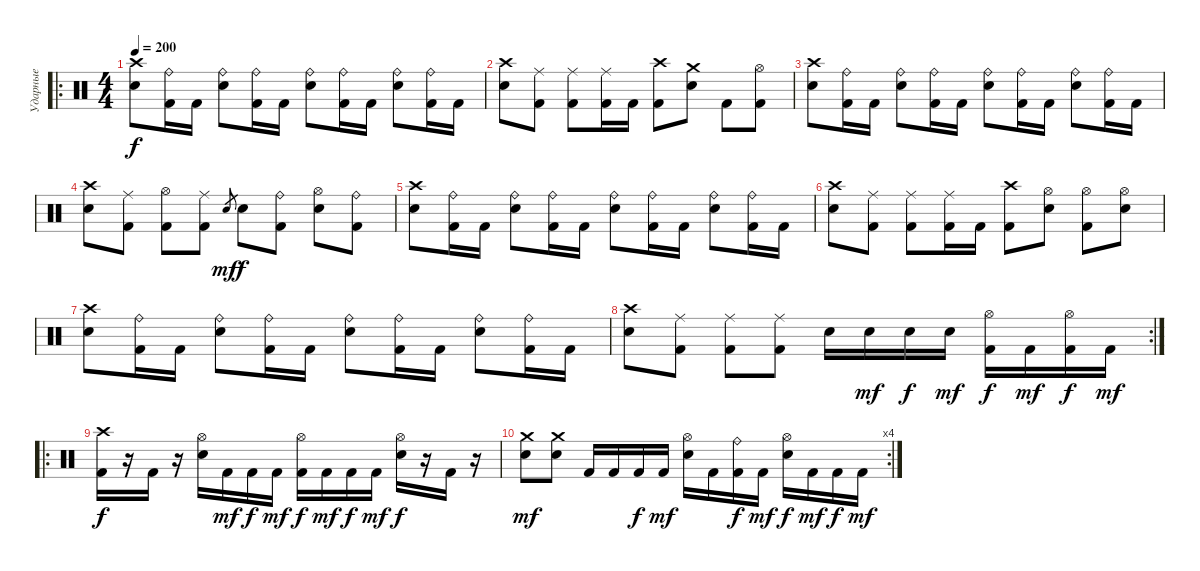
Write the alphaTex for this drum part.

\track ("Ударные" "Ударные") {instrument percussion}
\staff {score}
\articulation defaults
\ro
\ts (4 4)
\tempo 200
\clef neutral
\ks c
("Crash high (hit)" "Electric Snare (hit)").8{dy f} ("Ride (bell)" "Kick (hit) 2").16 "Kick (hit) 2".16 ("Ride (bell)" "Electric Snare (hit)").8 ("Ride (bell)" "Kick (hit) 2").16 "Kick (hit) 2".16 ("Ride (bell)" "Electric Snare (hit)").8 ("Ride (bell)" "Kick (hit) 2").16 "Kick (hit) 2".16 ("Ride (bell)" "Electric Snare (hit)").8 ("Ride (bell)" "Kick (hit) 2").16 "Kick (hit) 2".16 |
("Crash high (hit)" "Electric Snare (hit)").8 ("Ride (middle)" "Kick (hit) 2").8 ("Ride (middle)" "Kick (hit) 2").8 ("Ride (middle)" "Kick (hit) 2").16 "Kick (hit) 2".16 ("Crash high (hit)" "Kick (hit) 2").8 ("Crash medium (hit)" "Electric Snare (hit)").8 "Kick (hit) 2".8 ("Hi-Hat (open)" "Kick (hit) 2").8 |
("Crash high (hit)" "Electric Snare (hit)").8 ("Ride (bell)" "Kick (hit) 2").16 "Kick (hit) 2".16 ("Ride (bell)" "Electric Snare (hit)").8 ("Ride (bell)" "Kick (hit) 2").16 "Kick (hit) 2".16 ("Ride (bell)" "Electric Snare (hit)").8 ("Ride (bell)" "Kick (hit) 2").16 "Kick (hit) 2".16 ("Ride (bell)" "Electric Snare (hit)").8 ("Ride (bell)" "Kick (hit) 2").16 "Kick (hit) 2".16 |
("Crash high (hit)" "Electric Snare (hit)").8 ("Ride (middle)" "Kick (hit) 2").8 ("Hi-Hat (open)" "Kick (hit) 2").8 ("Ride (middle)" "Kick (hit) 2").8 "Electric Snare (hit)".8{gr dy mf} "Electric Snare (hit)".8{dy f} ("Ride (bell)" "Kick (hit) 2").8 ("Hi-Hat (open)" "Electric Snare (hit)").8 ("Ride (bell)" "Kick (hit) 2").8 |
("Crash high (hit)" "Electric Snare (hit)").8 ("Ride (bell)" "Kick (hit) 2").16 "Kick (hit) 2".16 ("Ride (bell)" "Electric Snare (hit)").8 ("Ride (bell)" "Kick (hit) 2").16 "Kick (hit) 2".16 ("Ride (bell)" "Electric Snare (hit)").8 ("Ride (bell)" "Kick (hit) 2").16 "Kick (hit) 2".16 ("Ride (bell)" "Electric Snare (hit)").8 ("Ride (bell)" "Kick (hit) 2").16 "Kick (hit) 2".16 |
("Crash high (hit)" "Electric Snare (hit)").8 ("Ride (middle)" "Kick (hit) 2").8 ("Ride (middle)" "Kick (hit) 2").8 ("Ride (middle)" "Kick (hit) 2").16 "Kick (hit) 2".16 ("Crash high (hit)" "Kick (hit) 2").8 ("Hi-Hat (open)" "Electric Snare (hit)").8 ("Hi-Hat (open)" "Kick (hit) 2").8 ("Hi-Hat (open)" "Electric Snare (hit)").8 |
("Crash high (hit)" "Electric Snare (hit)").8 ("Ride (bell)" "Kick (hit) 2").16 "Kick (hit) 2".16 ("Ride (bell)" "Electric Snare (hit)").8 ("Ride (bell)" "Kick (hit) 2").16 "Kick (hit) 2".16 ("Ride (bell)" "Electric Snare (hit)").8 ("Ride (bell)" "Kick (hit) 2").16 "Kick (hit) 2".16 ("Ride (bell)" "Electric Snare (hit)").8 ("Ride (bell)" "Kick (hit) 2").16 "Kick (hit) 2".16 |
\rc 2
("Crash high (hit)" "Electric Snare (hit)").8 ("Ride (middle)" "Kick (hit) 2").8 ("Ride (middle)" "Kick (hit) 2").8 ("Ride (middle)" "Kick (hit) 2").8 "Electric Snare (hit)".16 "Electric Snare (hit)".16{dy mf} "Electric Snare (hit)".16{dy f} "Electric Snare (hit)".16{dy mf} ("Hi-Hat (open)" "Kick (hit) 2").16{dy f} "Kick (hit) 2".16{dy mf} ("Hi-Hat (open)" "Kick (hit) 2").16{dy f} "Kick (hit) 2".16{dy mf} |
\ro
("Crash high (hit)" "Kick (hit) 2").16{dy f} r.16 "Kick (hit) 2".16 r.16 ("Hi-Hat (open)" "Electric Snare (hit)").16 "Kick (hit) 2".16{dy mf} "Kick (hit) 2".16{dy f} "Kick (hit) 2".16{dy mf} ("Hi-Hat (open)" "Kick (hit) 2").16{dy f} "Kick (hit) 2".16{dy mf} "Kick (hit) 2".16{dy f} "Kick (hit) 2".16{dy mf} ("Hi-Hat (open)" "Electric Snare (hit)").16{dy f} r.16 "Kick (hit) 2".16 r.16 |
\rc 4
("Crash medium (hit)" "Electric Snare (hit)").8{dy mf} ("Crash medium (hit)" "Electric Snare (hit)").8 "Kick (hit) 2".16 "Kick (hit) 2".16 "Kick (hit) 2".16{dy f} "Kick (hit) 2".16{dy mf} ("Hi-Hat (open)" "Electric Snare (hit)").16 "Kick (hit) 2".16 ("Ride (bell)" "Kick (hit) 2").16{dy f} "Kick (hit) 2".16{dy mf} ("Hi-Hat (open)" "Electric Snare (hit)").16{dy f} "Kick (hit) 2".16{dy mf} "Kick (hit) 2".16{dy f} "Kick (hit) 2".16{dy mf}
